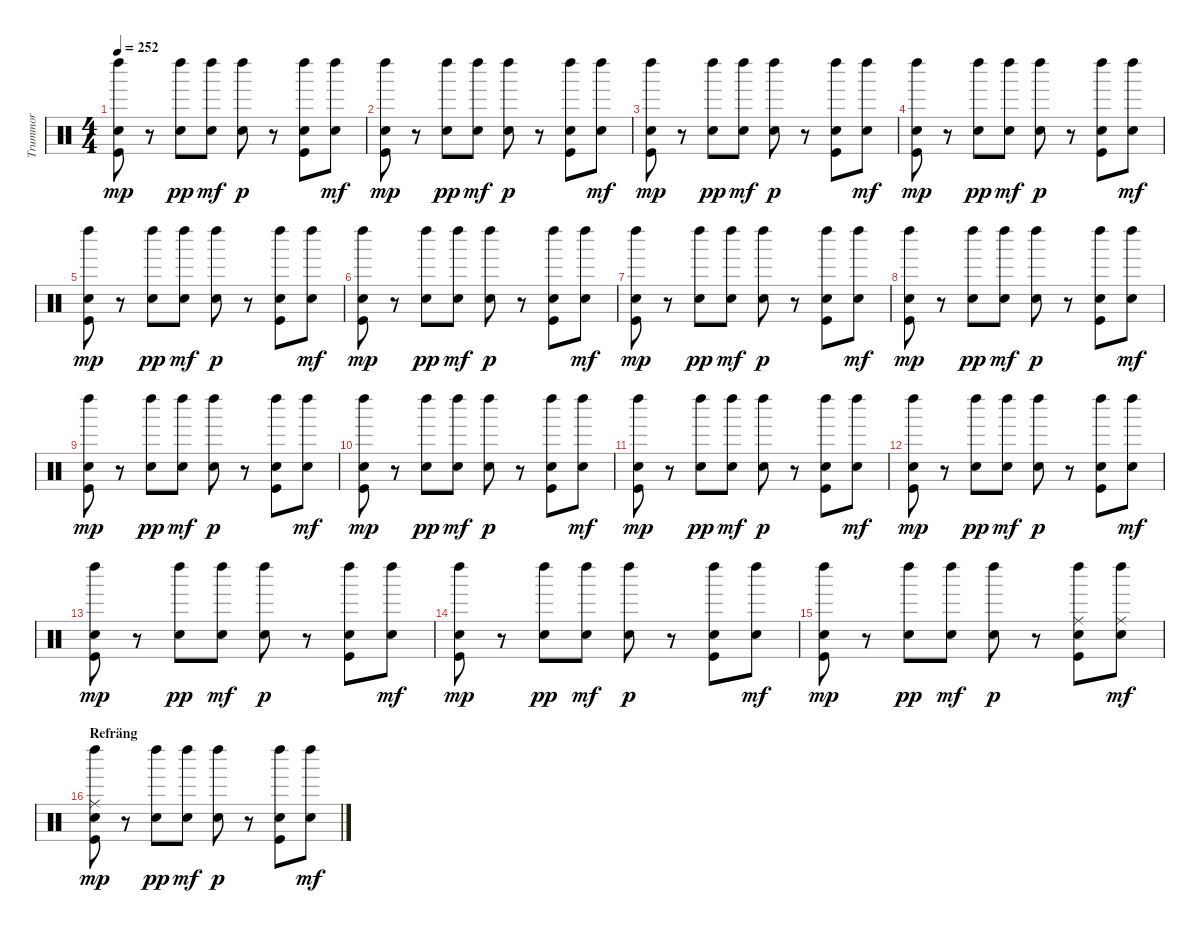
\track ("Trummor" "Trummor") {instrument percussion}
\staff {score}
\articulation defaults
\ts (4 4)
\tempo 252
\clef neutral
\ks c
("Left Maraca (hit)" "Snare (hit) 2" "Kick (hit)").8{dy mp} r.8 ("Left Maraca (hit)" "Snare (hit) 2").8{dy pp} ("Left Maraca (hit)" "Snare (hit) 2").8{dy mf} ("Left Maraca (hit)" "Snare (hit) 2").8{dy p} r.8 ("Left Maraca (hit)" "Snare (hit) 2" "Kick (hit)").8 ("Left Maraca (hit)" "Snare (hit) 2").8{dy mf} |
("Left Maraca (hit)" "Snare (hit) 2" "Kick (hit)").8{dy mp} r.8 ("Left Maraca (hit)" "Snare (hit) 2").8{dy pp} ("Left Maraca (hit)" "Snare (hit) 2").8{dy mf} ("Left Maraca (hit)" "Snare (hit) 2").8{dy p} r.8 ("Left Maraca (hit)" "Snare (hit) 2" "Kick (hit)").8 ("Left Maraca (hit)" "Snare (hit) 2").8{dy mf} |
("Left Maraca (hit)" "Snare (hit) 2" "Kick (hit)").8{dy mp} r.8 ("Left Maraca (hit)" "Snare (hit) 2").8{dy pp} ("Left Maraca (hit)" "Snare (hit) 2").8{dy mf} ("Left Maraca (hit)" "Snare (hit) 2").8{dy p} r.8 ("Left Maraca (hit)" "Snare (hit) 2" "Kick (hit)").8 ("Left Maraca (hit)" "Snare (hit) 2").8{dy mf} |
("Left Maraca (hit)" "Snare (hit) 2" "Kick (hit)").8{dy mp} r.8 ("Left Maraca (hit)" "Snare (hit) 2").8{dy pp} ("Left Maraca (hit)" "Snare (hit) 2").8{dy mf} ("Left Maraca (hit)" "Snare (hit) 2").8{dy p} r.8 ("Left Maraca (hit)" "Snare (hit) 2" "Kick (hit)").8 ("Left Maraca (hit)" "Snare (hit) 2").8{dy mf} |
("Left Maraca (hit)" "Snare (hit) 2" "Kick (hit)").8{dy mp} r.8 ("Left Maraca (hit)" "Snare (hit) 2").8{dy pp} ("Left Maraca (hit)" "Snare (hit) 2").8{dy mf} ("Left Maraca (hit)" "Snare (hit) 2").8{dy p} r.8 ("Left Maraca (hit)" "Snare (hit) 2" "Kick (hit)").8 ("Left Maraca (hit)" "Snare (hit) 2").8{dy mf} |
("Left Maraca (hit)" "Snare (hit) 2" "Kick (hit)").8{dy mp} r.8 ("Left Maraca (hit)" "Snare (hit) 2").8{dy pp} ("Left Maraca (hit)" "Snare (hit) 2").8{dy mf} ("Left Maraca (hit)" "Snare (hit) 2").8{dy p} r.8 ("Left Maraca (hit)" "Snare (hit) 2" "Kick (hit)").8 ("Left Maraca (hit)" "Snare (hit) 2").8{dy mf} |
("Left Maraca (hit)" "Snare (hit) 2" "Kick (hit)").8{dy mp} r.8 ("Left Maraca (hit)" "Snare (hit) 2").8{dy pp} ("Left Maraca (hit)" "Snare (hit) 2").8{dy mf} ("Left Maraca (hit)" "Snare (hit) 2").8{dy p} r.8 ("Left Maraca (hit)" "Snare (hit) 2" "Kick (hit)").8 ("Left Maraca (hit)" "Snare (hit) 2").8{dy mf} |
("Left Maraca (hit)" "Snare (hit) 2" "Kick (hit)").8{dy mp} r.8 ("Left Maraca (hit)" "Snare (hit) 2").8{dy pp} ("Left Maraca (hit)" "Snare (hit) 2").8{dy mf} ("Left Maraca (hit)" "Snare (hit) 2").8{dy p} r.8 ("Left Maraca (hit)" "Snare (hit) 2" "Kick (hit)").8 ("Left Maraca (hit)" "Snare (hit) 2").8{dy mf} |
("Left Maraca (hit)" "Snare (hit) 2" "Kick (hit)").8{dy mp} r.8 ("Left Maraca (hit)" "Snare (hit) 2").8{dy pp} ("Left Maraca (hit)" "Snare (hit) 2").8{dy mf} ("Left Maraca (hit)" "Snare (hit) 2").8{dy p} r.8 ("Left Maraca (hit)" "Snare (hit) 2" "Kick (hit)").8 ("Left Maraca (hit)" "Snare (hit) 2").8{dy mf} |
("Left Maraca (hit)" "Snare (hit) 2" "Kick (hit)").8{dy mp} r.8 ("Left Maraca (hit)" "Snare (hit) 2").8{dy pp} ("Left Maraca (hit)" "Snare (hit) 2").8{dy mf} ("Left Maraca (hit)" "Snare (hit) 2").8{dy p} r.8 ("Left Maraca (hit)" "Snare (hit) 2" "Kick (hit)").8 ("Left Maraca (hit)" "Snare (hit) 2").8{dy mf} |
("Left Maraca (hit)" "Snare (hit) 2" "Kick (hit)").8{dy mp} r.8 ("Left Maraca (hit)" "Snare (hit) 2").8{dy pp} ("Left Maraca (hit)" "Snare (hit) 2").8{dy mf} ("Left Maraca (hit)" "Snare (hit) 2").8{dy p} r.8 ("Left Maraca (hit)" "Snare (hit) 2" "Kick (hit)").8 ("Left Maraca (hit)" "Snare (hit) 2").8{dy mf} |
("Left Maraca (hit)" "Snare (hit) 2" "Kick (hit)").8{dy mp} r.8 ("Left Maraca (hit)" "Snare (hit) 2").8{dy pp} ("Left Maraca (hit)" "Snare (hit) 2").8{dy mf} ("Left Maraca (hit)" "Snare (hit) 2").8{dy p} r.8 ("Left Maraca (hit)" "Snare (hit) 2" "Kick (hit)").8 ("Left Maraca (hit)" "Snare (hit) 2").8{dy mf} |
("Left Maraca (hit)" "Snare (hit) 2" "Kick (hit)").8{dy mp} r.8 ("Left Maraca (hit)" "Snare (hit) 2").8{dy pp} ("Left Maraca (hit)" "Snare (hit) 2").8{dy mf} ("Left Maraca (hit)" "Snare (hit) 2").8{dy p} r.8 ("Left Maraca (hit)" "Snare (hit) 2" "Kick (hit)").8 ("Left Maraca (hit)" "Snare (hit) 2").8{dy mf} |
("Left Maraca (hit)" "Snare (hit) 2" "Kick (hit)").8{dy mp} r.8 ("Left Maraca (hit)" "Snare (hit) 2").8{dy pp} ("Left Maraca (hit)" "Snare (hit) 2").8{dy mf} ("Left Maraca (hit)" "Snare (hit) 2").8{dy p} r.8 ("Left Maraca (hit)" "Snare (hit) 2" "Kick (hit)").8 ("Left Maraca (hit)" "Snare (hit) 2").8{dy mf} |
("Left Maraca (hit)" "Snare (hit) 2" "Kick (hit)").8{dy mp} r.8 ("Left Maraca (hit)" "Snare (hit) 2").8{dy pp} ("Left Maraca (hit)" "Snare (hit) 2").8{dy mf} ("Left Maraca (hit)" "Snare (hit) 2").8{dy p} r.8 ("Left Maraca (hit)" "Ride (middle)" "Snare (hit) 2" "Kick (hit)").8 ("Left Maraca (hit)" "Ride (middle)" "Snare (hit) 2").8{dy mf} |
\section ("" "Refräng")
("Left Maraca (hit)" "Ride (middle)" "Snare (hit) 2" "Kick (hit)").8{dy mp} r.8 ("Left Maraca (hit)" "Snare (hit) 2").8{dy pp} ("Left Maraca (hit)" "Snare (hit) 2").8{dy mf} ("Left Maraca (hit)" "Snare (hit) 2").8{dy p} r.8 ("Left Maraca (hit)" "Snare (hit) 2" "Kick (hit)").8 ("Left Maraca (hit)" "Snare (hit) 2").8{dy mf}
